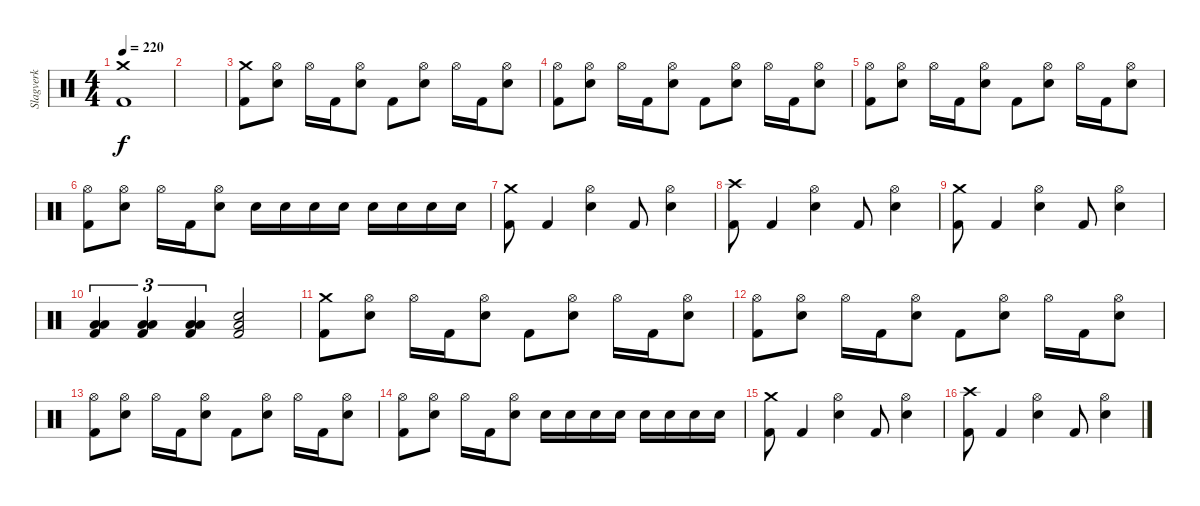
\track ("Slagverk" "Slagverk") {instrument percussion}
\staff {score}
\articulation defaults
\ts (4 4)
\tempo 220
\clef neutral
\ks c
("Crash medium (hit)" "Kick (hit) 2").1{dy f} |
|
("Crash medium (hit)" "Kick (hit) 2").8 ("Electric Snare (hit)" "Hi-Hat (open)").8 "Hi-Hat (open)".16 "Kick (hit) 2".16 ("Electric Snare (hit)" "Hi-Hat (open)").8 "Kick (hit) 2".8 ("Electric Snare (hit)" "Hi-Hat (open)").8 "Hi-Hat (open)".16 "Kick (hit) 2".16 ("Electric Snare (hit)" "Hi-Hat (open)").8 |
("Hi-Hat (open)" "Kick (hit) 2").8 ("Electric Snare (hit)" "Hi-Hat (open)").8 "Hi-Hat (open)".16 "Kick (hit) 2".16 ("Electric Snare (hit)" "Hi-Hat (open)").8 "Kick (hit) 2".8 ("Electric Snare (hit)" "Hi-Hat (open)").8 "Hi-Hat (open)".16 "Kick (hit) 2".16 ("Electric Snare (hit)" "Hi-Hat (open)").8 |
("Hi-Hat (open)" "Kick (hit) 2").8 ("Electric Snare (hit)" "Hi-Hat (open)").8 "Hi-Hat (open)".16 "Kick (hit) 2".16 ("Electric Snare (hit)" "Hi-Hat (open)").8 "Kick (hit) 2".8 ("Electric Snare (hit)" "Hi-Hat (open)").8 "Hi-Hat (open)".16 "Kick (hit) 2".16 ("Electric Snare (hit)" "Hi-Hat (open)").8 |
("Hi-Hat (open)" "Kick (hit) 2").8 ("Electric Snare (hit)" "Hi-Hat (open)").8 "Hi-Hat (open)".16 "Kick (hit) 2".16 ("Electric Snare (hit)" "Hi-Hat (open)").8 "Electric Snare (hit)".16 "Electric Snare (hit)".16 "Electric Snare (hit)".16 "Electric Snare (hit)".16 "Electric Snare (hit)".16 "Electric Snare (hit)".16 "Electric Snare (hit)".16 "Electric Snare (hit)".16 |
("Crash medium (hit)" "Kick (hit) 2").8 "Kick (hit) 2".4 ("Electric Snare (hit)" "Hi-Hat (open)").4 "Kick (hit) 2".8 ("Electric Snare (hit)" "Hi-Hat (open)").4 |
("Crash high (hit)" "Kick (hit) 2").8 "Kick (hit) 2".4 ("Electric Snare (hit)" "Hi-Hat (open)").4 "Kick (hit) 2".8 ("Electric Snare (hit)" "Hi-Hat (open)").4 |
("Crash medium (hit)" "Kick (hit) 2").8 "Kick (hit) 2".4 ("Electric Snare (hit)" "Hi-Hat (open)").4 "Kick (hit) 2".8 ("Electric Snare (hit)" "Hi-Hat (open)").4 |
("Low Tom (hit)" "Low Floor Tom (hit)" "Kick (hit) 2").4{tu (3 2)} ("Low Tom (hit)" "Low Floor Tom (hit)" "Kick (hit) 2").4{tu (3 2)} ("Low Tom (hit)" "Low Floor Tom (hit)" "Kick (hit) 2").4{tu (3 2)} ("Low Tom (hit)" "Electric Snare (hit)" "Kick (hit) 2").2 |
("Crash medium (hit)" "Kick (hit) 2").8 ("Electric Snare (hit)" "Hi-Hat (open)").8 "Hi-Hat (open)".16 "Kick (hit) 2".16 ("Electric Snare (hit)" "Hi-Hat (open)").8 "Kick (hit) 2".8 ("Electric Snare (hit)" "Hi-Hat (open)").8 "Hi-Hat (open)".16 "Kick (hit) 2".16 ("Electric Snare (hit)" "Hi-Hat (open)").8 |
("Hi-Hat (open)" "Kick (hit) 2").8 ("Electric Snare (hit)" "Hi-Hat (open)").8 "Hi-Hat (open)".16 "Kick (hit) 2".16 ("Electric Snare (hit)" "Hi-Hat (open)").8 "Kick (hit) 2".8 ("Electric Snare (hit)" "Hi-Hat (open)").8 "Hi-Hat (open)".16 "Kick (hit) 2".16 ("Electric Snare (hit)" "Hi-Hat (open)").8 |
("Hi-Hat (open)" "Kick (hit) 2").8 ("Electric Snare (hit)" "Hi-Hat (open)").8 "Hi-Hat (open)".16 "Kick (hit) 2".16 ("Electric Snare (hit)" "Hi-Hat (open)").8 "Kick (hit) 2".8 ("Electric Snare (hit)" "Hi-Hat (open)").8 "Hi-Hat (open)".16 "Kick (hit) 2".16 ("Electric Snare (hit)" "Hi-Hat (open)").8 |
("Hi-Hat (open)" "Kick (hit) 2").8 ("Electric Snare (hit)" "Hi-Hat (open)").8 "Hi-Hat (open)".16 "Kick (hit) 2".16 ("Electric Snare (hit)" "Hi-Hat (open)").8 "Electric Snare (hit)".16 "Electric Snare (hit)".16 "Electric Snare (hit)".16 "Electric Snare (hit)".16 "Electric Snare (hit)".16 "Electric Snare (hit)".16 "Electric Snare (hit)".16 "Electric Snare (hit)".16 |
("Crash medium (hit)" "Kick (hit) 2").8 "Kick (hit) 2".4 ("Electric Snare (hit)" "Hi-Hat (open)").4 "Kick (hit) 2".8 ("Electric Snare (hit)" "Hi-Hat (open)").4 |
("Crash high (hit)" "Kick (hit) 2").8 "Kick (hit) 2".4 ("Electric Snare (hit)" "Hi-Hat (open)").4 "Kick (hit) 2".8 ("Electric Snare (hit)" "Hi-Hat (open)").4
